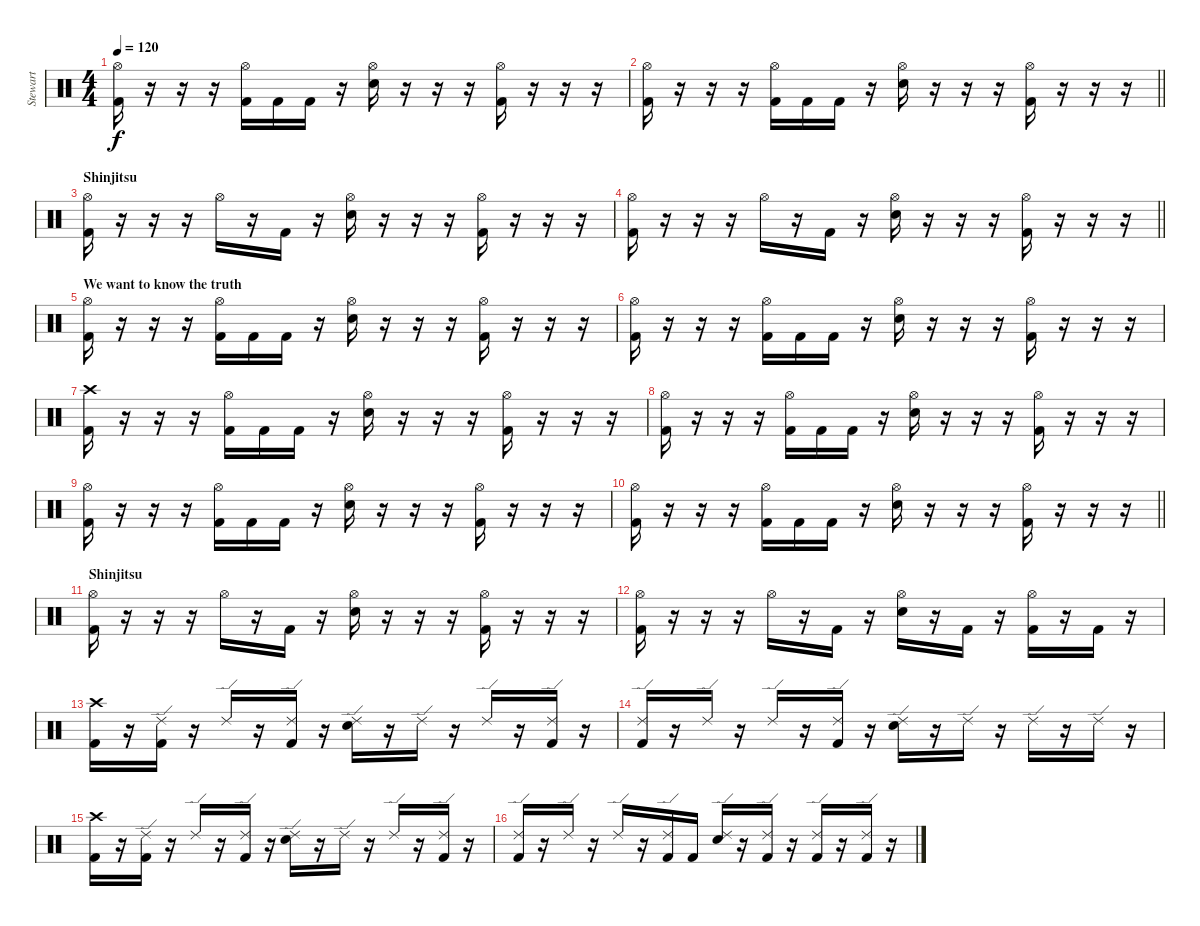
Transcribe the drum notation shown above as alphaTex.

\track ("Stewart" "Stewart") {instrument percussion}
\staff {score}
\articulation defaults
\ts (4 4)
\tempo 120
\clef neutral
\ks c
("Hi-Hat (open)" "Kick (hit) 2").16{dy f} r.16 r.16 r.16 ("Hi-Hat (open)" "Kick (hit) 2").16 "Kick (hit) 2".16 "Kick (hit) 2".16 r.16 ("Hi-Hat (open)" "Electric Snare (hit)").16 r.16 r.16 r.16 ("Hi-Hat (open)" "Kick (hit) 2").16 r.16 r.16 r.16 |
\barLineRight lightlight
("Hi-Hat (open)" "Kick (hit) 2").16 r.16 r.16 r.16 ("Hi-Hat (open)" "Kick (hit) 2").16 "Kick (hit) 2".16 "Kick (hit) 2".16 r.16 ("Hi-Hat (open)" "Electric Snare (hit)").16 r.16 r.16 r.16 ("Hi-Hat (open)" "Kick (hit) 2").16 r.16 r.16 r.16 |
\section ("" "Shinjitsu")
("Hi-Hat (open)" "Kick (hit) 2").16 r.16 r.16 r.16 "Hi-Hat (open)".16 r.16 "Kick (hit) 2".16 r.16 ("Hi-Hat (open)" "Electric Snare (hit)").16 r.16 r.16 r.16 ("Hi-Hat (open)" "Kick (hit) 2").16 r.16 r.16 r.16 |
\barLineRight lightlight
("Hi-Hat (open)" "Kick (hit) 2").16 r.16 r.16 r.16 "Hi-Hat (open)".16 r.16 "Kick (hit) 2".16 r.16 ("Hi-Hat (open)" "Electric Snare (hit)").16 r.16 r.16 r.16 ("Hi-Hat (open)" "Kick (hit) 2").16 r.16 r.16 r.16 |
\section ("" "We want to know the truth")
("Hi-Hat (open)" "Kick (hit) 2").16 r.16 r.16 r.16 ("Hi-Hat (open)" "Kick (hit) 2").16 "Kick (hit) 2".16 "Kick (hit) 2".16 r.16 ("Hi-Hat (open)" "Electric Snare (hit)").16 r.16 r.16 r.16 ("Hi-Hat (open)" "Kick (hit) 2").16 r.16 r.16 r.16 |
("Hi-Hat (open)" "Kick (hit) 2").16 r.16 r.16 r.16 ("Hi-Hat (open)" "Kick (hit) 2").16 "Kick (hit) 2".16 "Kick (hit) 2".16 r.16 ("Hi-Hat (open)" "Electric Snare (hit)").16 r.16 r.16 r.16 ("Hi-Hat (open)" "Kick (hit) 2").16 r.16 r.16 r.16 |
("Crash high (hit)" "Kick (hit) 2").16 r.16 r.16 r.16 ("Hi-Hat (open)" "Kick (hit) 2").16 "Kick (hit) 2".16 "Kick (hit) 2".16 r.16 ("Hi-Hat (open)" "Electric Snare (hit)").16 r.16 r.16 r.16 ("Hi-Hat (open)" "Kick (hit) 2").16 r.16 r.16 r.16 |
("Hi-Hat (open)" "Kick (hit) 2").16 r.16 r.16 r.16 ("Hi-Hat (open)" "Kick (hit) 2").16 "Kick (hit) 2".16 "Kick (hit) 2".16 r.16 ("Hi-Hat (open)" "Electric Snare (hit)").16 r.16 r.16 r.16 ("Hi-Hat (open)" "Kick (hit) 2").16 r.16 r.16 r.16 |
("Hi-Hat (open)" "Kick (hit) 2").16 r.16 r.16 r.16 ("Hi-Hat (open)" "Kick (hit) 2").16 "Kick (hit) 2".16 "Kick (hit) 2".16 r.16 ("Hi-Hat (open)" "Electric Snare (hit)").16 r.16 r.16 r.16 ("Hi-Hat (open)" "Kick (hit) 2").16 r.16 r.16 r.16 |
\barLineRight lightlight
("Hi-Hat (open)" "Kick (hit) 2").16 r.16 r.16 r.16 ("Hi-Hat (open)" "Kick (hit) 2").16 "Kick (hit) 2".16 "Kick (hit) 2".16 r.16 ("Hi-Hat (open)" "Electric Snare (hit)").16 r.16 r.16 r.16 ("Hi-Hat (open)" "Kick (hit) 2").16 r.16 r.16 r.16 |
\section ("" "Shinjitsu")
("Hi-Hat (open)" "Kick (hit) 2").16 r.16 r.16 r.16 "Hi-Hat (open)".16 r.16 "Kick (hit) 2".16 r.16 ("Hi-Hat (open)" "Electric Snare (hit)").16 r.16 r.16 r.16 ("Hi-Hat (open)" "Kick (hit) 2").16 r.16 r.16 r.16 |
("Hi-Hat (open)" "Kick (hit) 2").16 r.16 r.16 r.16 "Hi-Hat (open)".16 r.16 "Kick (hit) 2".16 r.16 ("Hi-Hat (open)" "Electric Snare (hit)").16 r.16 "Kick (hit) 2".16 r.16 ("Hi-Hat (open)" "Kick (hit) 2").16 r.16 "Kick (hit) 2".16 r.16 |
("Crash high (hit)" "Kick (hit) 2").16 r.16 ("Ride (edge) 2" "Kick (hit) 2").16 r.16 "Ride (edge) 2".16 r.16 ("Ride (edge) 2" "Kick (hit) 2").16 r.16 ("Ride (edge) 2" "Electric Snare (hit)").16 r.16 "Ride (edge) 2".16 r.16 "Ride (edge) 2".16 r.16 ("Ride (edge) 2" "Kick (hit) 2").16 r.16 |
("Ride (edge) 2" "Kick (hit) 2").16 r.16 "Ride (edge) 2".16 r.16 "Ride (edge) 2".16 r.16 ("Ride (edge) 2" "Kick (hit) 2").16 r.16 ("Ride (edge) 2" "Electric Snare (hit)").16 r.16 "Ride (edge) 2".16 r.16 "Ride (edge) 2".16 r.16 "Ride (edge) 2".16 r.16 |
("Crash high (hit)" "Kick (hit) 2").16 r.16 ("Ride (edge) 2" "Kick (hit) 2").16 r.16 "Ride (edge) 2".16 r.16 ("Ride (edge) 2" "Kick (hit) 2").16 r.16 ("Ride (edge) 2" "Electric Snare (hit)").16 r.16 "Ride (edge) 2".16 r.16 "Ride (edge) 2".16 r.16 ("Ride (edge) 2" "Kick (hit) 2").16 r.16 |
("Ride (edge) 2" "Kick (hit) 2").16 r.16 "Ride (edge) 2".16 r.16 "Ride (edge) 2".16 r.16 ("Ride (edge) 2" "Kick (hit) 2").16 "Kick (hit) 2".16 ("Ride (edge) 2" "Electric Snare (hit)").16 r.16 ("Ride (edge) 2" "Kick (hit) 2").16 r.16 ("Ride (edge) 2" "Kick (hit) 2").16 r.16 ("Ride (edge) 2" "Kick (hit) 2").16 r.16
